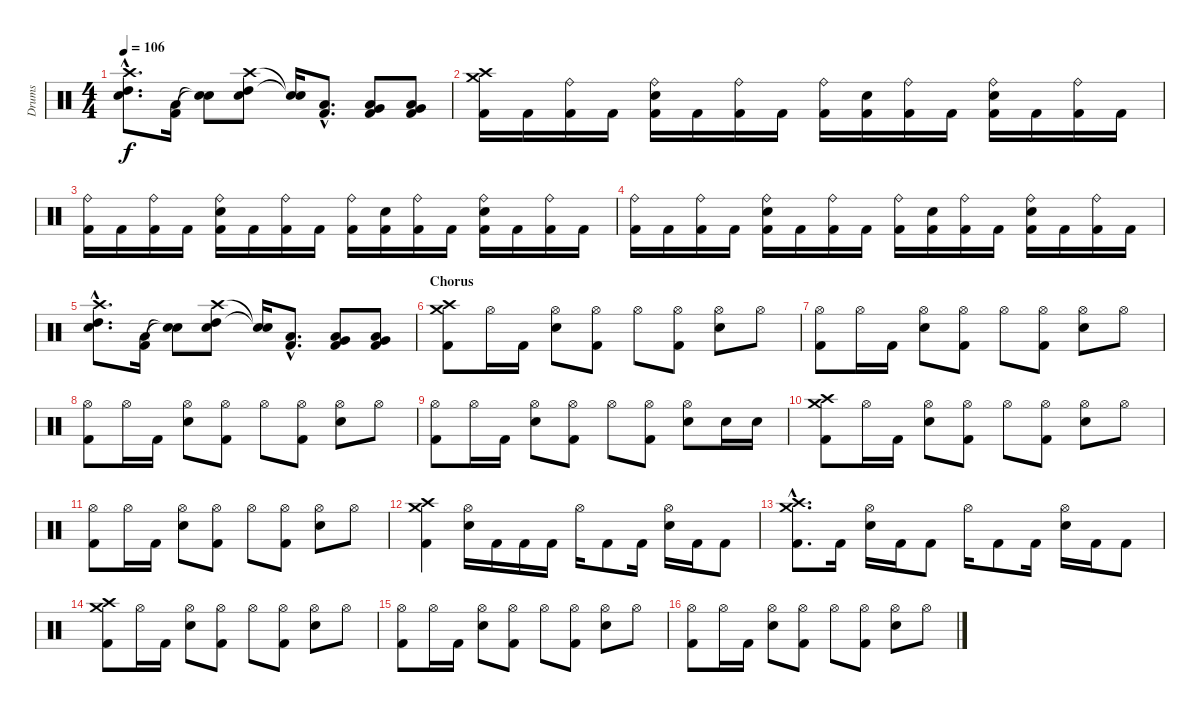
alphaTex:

\track ("Drums" "Drums") {instrument percussion}
\staff {score}
\articulation defaults
\ts (4 4)
\tempo 106
\clef neutral
\ks c
("Crash high (hit)"{hac} "High Tom (hit)"{hac} "Electric Snare (hit)"{hac}).8{d dy f} ("Low Tom (hit)" "Kick (hit) 2").16 ("Snare (hit)"{t} "Snare (hit)"{t}).8 ("Crash high (hit)" "High Tom (hit)" "Electric Snare (hit)").8 ("Snare (hit)"{t} "Snare (hit)"{t}).16 ("Low Tom (hit)"{hac} "Kick (hit) 2"{hac}).8{d} ("Very Low Tom (hit)" "Low Floor Tom (hit)" "Kick (hit) 2").8 ("Very Low Tom (hit)" "Low Floor Tom (hit)" "Kick (hit) 2").8 |
("Crash high (hit)" "Crash medium (hit)" "Kick (hit) 2").16 "Kick (hit) 2".16 ("Ride (bell)" "Kick (hit) 2").16 "Kick (hit) 2".16 ("Ride (bell)" "Electric Snare (hit)" "Kick (hit) 2").16 "Kick (hit) 2".16 ("Ride (bell)" "Kick (hit) 2").16 "Kick (hit) 2".16 ("Ride (bell)" "Kick (hit) 2").16 ("Electric Snare (hit)" "Kick (hit) 2").16 ("Ride (bell)" "Kick (hit) 2").16 "Kick (hit) 2".16 ("Ride (bell)" "Electric Snare (hit)" "Kick (hit) 2").16 "Kick (hit) 2".16 ("Ride (bell)" "Kick (hit) 2").16 "Kick (hit) 2".16 |
("Ride (bell)" "Kick (hit) 2").16 "Kick (hit) 2".16 ("Ride (bell)" "Kick (hit) 2").16 "Kick (hit) 2".16 ("Ride (bell)" "Electric Snare (hit)" "Kick (hit) 2").16 "Kick (hit) 2".16 ("Ride (bell)" "Kick (hit) 2").16 "Kick (hit) 2".16 ("Ride (bell)" "Kick (hit) 2").16 ("Electric Snare (hit)" "Kick (hit) 2").16 ("Ride (bell)" "Kick (hit) 2").16 "Kick (hit) 2".16 ("Ride (bell)" "Electric Snare (hit)" "Kick (hit) 2").16 "Kick (hit) 2".16 ("Ride (bell)" "Kick (hit) 2").16 "Kick (hit) 2".16 |
("Ride (bell)" "Kick (hit) 2").16 "Kick (hit) 2".16 ("Ride (bell)" "Kick (hit) 2").16 "Kick (hit) 2".16 ("Ride (bell)" "Electric Snare (hit)" "Kick (hit) 2").16 "Kick (hit) 2".16 ("Ride (bell)" "Kick (hit) 2").16 "Kick (hit) 2".16 ("Ride (bell)" "Kick (hit) 2").16 ("Electric Snare (hit)" "Kick (hit) 2").16 ("Ride (bell)" "Kick (hit) 2").16 "Kick (hit) 2".16 ("Ride (bell)" "Electric Snare (hit)" "Kick (hit) 2").16 "Kick (hit) 2".16 ("Ride (bell)" "Kick (hit) 2").16 "Kick (hit) 2".16 |
("Crash high (hit)"{hac} "High Tom (hit)"{hac} "Electric Snare (hit)"{hac}).8{d} ("Low Tom (hit)" "Kick (hit) 2").16 ("Snare (hit)"{t} "Snare (hit)"{t}).8 ("Crash high (hit)" "High Tom (hit)" "Electric Snare (hit)").8 ("Snare (hit)"{t} "Snare (hit)"{t}).16 ("Low Tom (hit)"{hac} "Kick (hit) 2"{hac}).8{d} ("Very Low Tom (hit)" "Low Floor Tom (hit)" "Kick (hit) 2").8 ("Very Low Tom (hit)" "Low Floor Tom (hit)" "Kick (hit) 2").8 |
\section ("" "Chorus")
("Crash high (hit)" "Crash medium (hit)" "Kick (hit) 2").8 "Hi-Hat (open)".16 "Kick (hit) 2".16 ("Hi-Hat (open)" "Electric Snare (hit)").8 ("Hi-Hat (open)" "Kick (hit) 2").8 "Hi-Hat (open)".8 ("Hi-Hat (open)" "Kick (hit) 2").8 ("Hi-Hat (open)" "Electric Snare (hit)").8 "Hi-Hat (open)".8 |
("Hi-Hat (open)" "Kick (hit) 2").8 "Hi-Hat (open)".16 "Kick (hit) 2".16 ("Hi-Hat (open)" "Electric Snare (hit)").8 ("Hi-Hat (open)" "Kick (hit) 2").8 "Hi-Hat (open)".8 ("Hi-Hat (open)" "Kick (hit) 2").8 ("Hi-Hat (open)" "Electric Snare (hit)").8 "Hi-Hat (open)".8 |
("Hi-Hat (open)" "Kick (hit) 2").8 "Hi-Hat (open)".16 "Kick (hit) 2".16 ("Hi-Hat (open)" "Electric Snare (hit)").8 ("Hi-Hat (open)" "Kick (hit) 2").8 "Hi-Hat (open)".8 ("Hi-Hat (open)" "Kick (hit) 2").8 ("Hi-Hat (open)" "Electric Snare (hit)").8 "Hi-Hat (open)".8 |
("Hi-Hat (open)" "Kick (hit) 2").8 "Hi-Hat (open)".16 "Kick (hit) 2".16 ("Hi-Hat (open)" "Electric Snare (hit)").8 ("Hi-Hat (open)" "Kick (hit) 2").8 "Hi-Hat (open)".8 ("Hi-Hat (open)" "Kick (hit) 2").8 ("Hi-Hat (open)" "Electric Snare (hit)").8 "Electric Snare (hit)".16 "Electric Snare (hit)".16 |
("Crash high (hit)" "Crash medium (hit)" "Kick (hit) 2").8 "Hi-Hat (open)".16 "Kick (hit) 2".16 ("Hi-Hat (open)" "Electric Snare (hit)").8 ("Hi-Hat (open)" "Kick (hit) 2").8 "Hi-Hat (open)".8 ("Hi-Hat (open)" "Kick (hit) 2").8 ("Hi-Hat (open)" "Electric Snare (hit)").8 "Hi-Hat (open)".8 |
("Hi-Hat (open)" "Kick (hit) 2").8 "Hi-Hat (open)".16 "Kick (hit) 2".16 ("Hi-Hat (open)" "Electric Snare (hit)").8 ("Hi-Hat (open)" "Kick (hit) 2").8 "Hi-Hat (open)".8 ("Hi-Hat (open)" "Kick (hit) 2").8 ("Hi-Hat (open)" "Electric Snare (hit)").8 "Hi-Hat (open)".8 |
("Crash high (hit)" "Crash medium (hit)" "Kick (hit) 2").4 ("Hi-Hat (open)" "Electric Snare (hit)").16 "Kick (hit) 2".16 "Kick (hit) 2".16 "Kick (hit) 2".16 "Hi-Hat (open)".16 "Kick (hit) 2".8 "Kick (hit) 2".16 ("Hi-Hat (open)" "Electric Snare (hit)").16 "Kick (hit) 2".16 "Kick (hit) 2".8 |
("Crash high (hit)"{hac} "Crash medium (hit)"{hac} "Kick (hit) 2"{hac}).8{d} "Kick (hit) 2".16 ("Hi-Hat (open)" "Electric Snare (hit)").16 "Kick (hit) 2".16 "Kick (hit) 2".8 "Hi-Hat (open)".16 "Kick (hit) 2".8 "Kick (hit) 2".16 ("Hi-Hat (open)" "Electric Snare (hit)").16 "Kick (hit) 2".16 "Kick (hit) 2".8 |
("Crash high (hit)" "Crash medium (hit)" "Kick (hit) 2").8 "Hi-Hat (open)".16 "Kick (hit) 2".16 ("Hi-Hat (open)" "Electric Snare (hit)").8 ("Hi-Hat (open)" "Kick (hit) 2").8 "Hi-Hat (open)".8 ("Hi-Hat (open)" "Kick (hit) 2").8 ("Hi-Hat (open)" "Electric Snare (hit)").8 "Hi-Hat (open)".8 |
("Hi-Hat (open)" "Kick (hit) 2").8 "Hi-Hat (open)".16 "Kick (hit) 2".16 ("Hi-Hat (open)" "Electric Snare (hit)").8 ("Hi-Hat (open)" "Kick (hit) 2").8 "Hi-Hat (open)".8 ("Hi-Hat (open)" "Kick (hit) 2").8 ("Hi-Hat (open)" "Electric Snare (hit)").8 "Hi-Hat (open)".8 |
("Hi-Hat (open)" "Kick (hit) 2").8 "Hi-Hat (open)".16 "Kick (hit) 2".16 ("Hi-Hat (open)" "Electric Snare (hit)").8 ("Hi-Hat (open)" "Kick (hit) 2").8 "Hi-Hat (open)".8 ("Hi-Hat (open)" "Kick (hit) 2").8 ("Hi-Hat (open)" "Electric Snare (hit)").8 "Hi-Hat (open)".8
